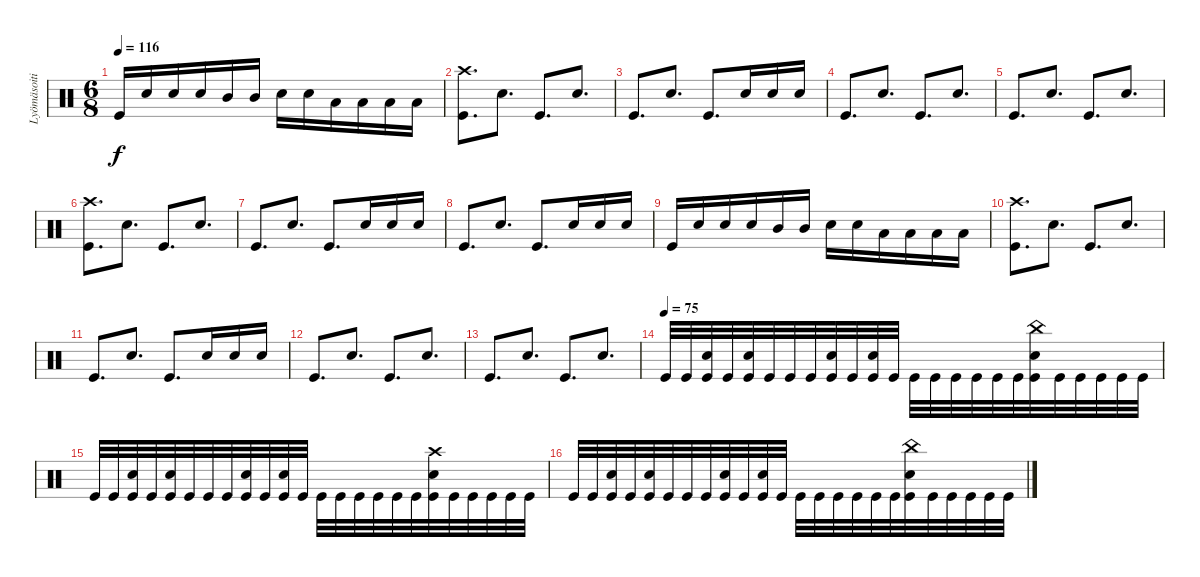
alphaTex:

\track ("Lyömäsoitin" "Lyömäsoiti") {instrument percussion}
\staff {score}
\articulation defaults
\ts (6 8)
\tempo 116
\clef neutral
\ks c "Kick (hit)".16{dy f} "Snare (hit) 2".16 "Snare (hit) 2".16 "Snare (hit) 2".16 "Mid Tom (hit)".16 "Mid Tom (hit)".16 "Snare (hit) 2".16 "Snare (hit) 2".16 "Low Tom (hit)".16 "Low Tom (hit)".16 "Low Tom (hit)".16 "Low Floor Tom (hit)".16
|
("Kick (hit)" "Crash high (hit)").8{d} "Snare (hit) 2".8{d} "Kick (hit)".8{d} "Snare (hit) 2".8{d} |
"Kick (hit)".8{d} "Snare (hit) 2".8{d} "Kick (hit)".8{d} "Snare (hit) 2".16 "Snare (hit) 2".16 "Snare (hit) 2".16 |
"Kick (hit)".8{d} "Snare (hit) 2".8{d} "Kick (hit)".8{d} "Snare (hit) 2".8{d} |
"Kick (hit)".8{d} "Snare (hit) 2".8{d} "Kick (hit)".8{d} "Snare (hit) 2".8{d} |
("Kick (hit)" "Crash high (hit)").8{d} "Snare (hit) 2".8{d} "Kick (hit)".8{d} "Snare (hit) 2".8{d} |
"Kick (hit)".8{d} "Snare (hit) 2".8{d} "Kick (hit)".8{d} "Snare (hit) 2".16 "Snare (hit) 2".16 "Snare (hit) 2".16 |
"Kick (hit)".8{d} "Snare (hit) 2".8{d} "Kick (hit)".8{d} "Snare (hit) 2".16 "Snare (hit) 2".16 "Snare (hit) 2".16 |
"Kick (hit)".16 "Snare (hit) 2".16 "Snare (hit) 2".16 "Snare (hit) 2".16 "Mid Tom (hit)".16 "Mid Tom (hit)".16 "Snare (hit) 2".16 "Snare (hit) 2".16 "Low Tom (hit)".16 "Low Tom (hit)".16 "Low Tom (hit)".16 "Low Floor Tom (hit)".16 |
("Kick (hit)" "Crash high (hit)").8{d} "Snare (hit) 2".8{d} "Kick (hit)".8{d} "Snare (hit) 2".8{d} |
"Kick (hit)".8{d} "Snare (hit) 2".8{d} "Kick (hit)".8{d} "Snare (hit) 2".16 "Snare (hit) 2".16 "Snare (hit) 2".16 |
"Kick (hit)".8{d} "Snare (hit) 2".8{d} "Kick (hit)".8{d} "Snare (hit) 2".8{d} |
"Kick (hit)".8{d} "Snare (hit) 2".8{d} "Kick (hit)".8{d} "Snare (hit) 2".8{d} |
\tempo (75)
"Kick (hit)".32 "Kick (hit)".32 ("Snare (hit) 2" "Kick (hit)").32 "Kick (hit)".32 ("Snare (hit) 2" "Kick (hit)").32 "Kick (hit)".32 "Kick (hit)".32 "Kick (hit)".32 ("Snare (hit) 2" "Kick (hit)").32 "Kick (hit)".32 ("Snare (hit) 2" "Kick (hit)").32 "Kick (hit)".32 "Kick (hit)".32 "Kick (hit)".32 "Kick (hit)".32 "Kick (hit)".32 "Kick (hit)".32 "Kick (hit)".32 ("Snare (hit) 2" "Kick (hit)" "China (hit)").32 "Kick (hit)".32 "Kick (hit)".32 "Kick (hit)".32 "Kick (hit)".32 "Kick (hit)".32 |
"Kick (hit)".32 "Kick (hit)".32 ("Snare (hit) 2" "Kick (hit)").32 "Kick (hit)".32 ("Snare (hit) 2" "Kick (hit)").32 "Kick (hit)".32 "Kick (hit)".32 "Kick (hit)".32 ("Snare (hit) 2" "Kick (hit)").32 "Kick (hit)".32 ("Snare (hit) 2" "Kick (hit)").32 "Kick (hit)".32 "Kick (hit)".32 "Kick (hit)".32 "Kick (hit)".32 "Kick (hit)".32 "Kick (hit)".32 "Kick (hit)".32 ("Snare (hit) 2" "Kick (hit)" "Crash high (hit)").32 "Kick (hit)".32 "Kick (hit)".32 "Kick (hit)".32 "Kick (hit)".32 "Kick (hit)".32 |
"Kick (hit)".32 "Kick (hit)".32 ("Snare (hit) 2" "Kick (hit)").32 "Kick (hit)".32 ("Snare (hit) 2" "Kick (hit)").32 "Kick (hit)".32 "Kick (hit)".32 "Kick (hit)".32 ("Snare (hit) 2" "Kick (hit)").32 "Kick (hit)".32 ("Snare (hit) 2" "Kick (hit)").32 "Kick (hit)".32 "Kick (hit)".32 "Kick (hit)".32 "Kick (hit)".32 "Kick (hit)".32 "Kick (hit)".32 "Kick (hit)".32 ("Snare (hit) 2" "Kick (hit)" "China (hit)").32 "Kick (hit)".32 "Kick (hit)".32 "Kick (hit)".32 "Kick (hit)".32 "Kick (hit)".32
